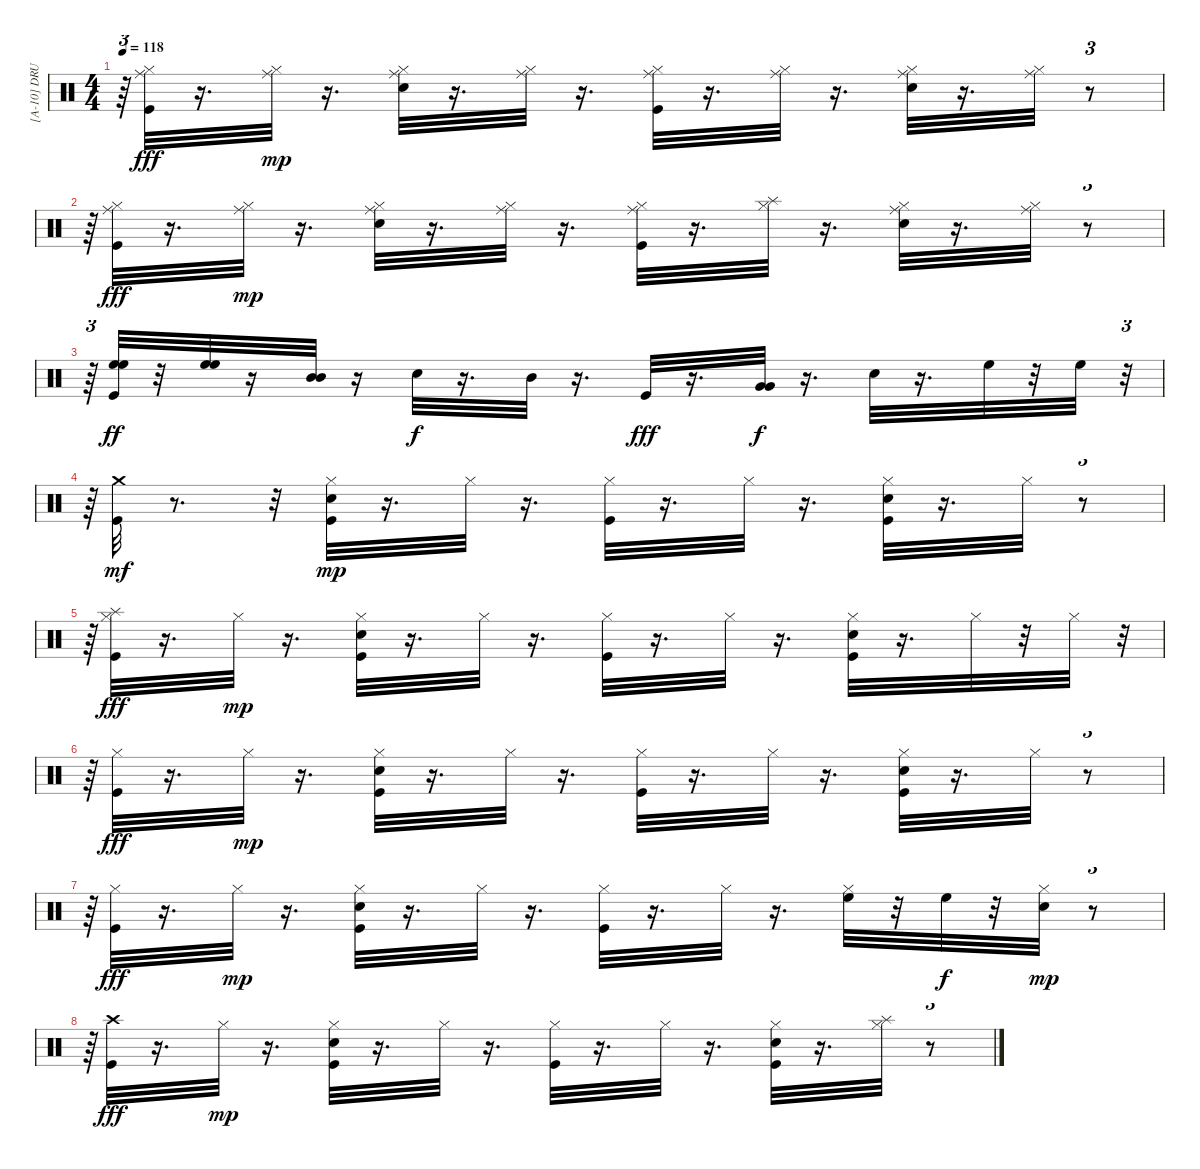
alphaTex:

\track ("[A-10] DRUM" "[A-10] DRU") {instrument percussion}
\staff {score}
\articulation defaults
\ts (4 4)
\tempo 118
\clef neutral
\ks c
r.64{tu (3 2) dy mp} ("Ride (middle)" "Hi-Hat (closed)" "Kick (hit)").32{dy fff} r.16{d} ("Ride (middle)" "Hi-Hat (closed)").32{dy mp} r.16{d} ("Ride (middle)" "Snare (hit) 2" "Hi-Hat (closed)").32 r.16{d} ("Ride (middle)" "Hi-Hat (closed)").32 r.16{d} ("Kick (hit)" "Ride (middle)" "Hi-Hat (closed)").32 r.16{d} ("Ride (middle)" "Hi-Hat (closed)").32 r.16{d} ("Snare (hit) 2" "Ride (middle)" "Hi-Hat (closed)").32 r.16{d} ("Ride (middle)" "Hi-Hat (closed)").32 r.8{tu (3 2)} |
r.64{tu (3 2)} ("Ride (middle)" "Hi-Hat (closed)" "Kick (hit)").32{dy fff} r.16{d} ("Ride (middle)" "Hi-Hat (closed)").32{dy mp} r.16{d} ("Snare (hit) 2" "Ride (middle)" "Hi-Hat (closed)").32 r.16{d} ("Ride (middle)" "Hi-Hat (closed)").32 r.16{d} ("Kick (hit)" "Ride (middle)" "Hi-Hat (closed)").32 r.16{d} ("Splash (hit)" "Hi-Hat (closed)").32 r.16{d} ("Snare (hit) 2" "Ride (middle)" "Hi-Hat (closed)").32 r.16{d} ("Ride (middle)" "Hi-Hat (closed)").32 r.8{tu (3 2)} |
r.64{tu (3 2)} ("High Floor Tom (hit)" "Kick (hit)" "High Floor Tom (hit)").32{dy ff} r.32 ("High Floor Tom (hit)" "High Floor Tom (hit)").32 r.16 ("Mid Tom (hit)" "Mid Tom (hit)").32 r.16 "Snare (hit) 2".32{dy f} r.16{d} "Mid Tom (hit)".32 r.16{d} "Kick (hit)".32{dy fff} r.16{d} ("Very Low Tom (hit)" "Very Low Tom (hit)").32{dy f} r.16{d} "Snare (hit) 2".32 r.16{d} "High Floor Tom (hit)".32 r.32 "High Floor Tom (hit)".32 r.32{tu (3 2)} |
r.64{tu (3 2)} ("Kick (hit)" "Crash medium (hit)").32{dy mf} r.8{d} r.32 ("Kick (hit)" "Hi-Hat (closed)" "Snare (hit) 2").32{dy mp} r.16{d} "Hi-Hat (closed)".32 r.16{d} ("Kick (hit)" "Hi-Hat (closed)").32 r.16{d} "Hi-Hat (closed)".32 r.16{d} ("Kick (hit)" "Hi-Hat (closed)" "Snare (hit) 2").32 r.16{d} "Hi-Hat (closed)".32 r.8{tu (3 2)} |
r.64{tu (3 2)} ("Hi-Hat (closed)" "Splash (hit)" "Kick (hit)").32{dy fff} r.16{d} "Hi-Hat (closed)".32{dy mp} r.16{d} ("Kick (hit)" "Hi-Hat (closed)" "Snare (hit) 2").32 r.16{d} "Hi-Hat (closed)".32 r.16{d} ("Kick (hit)" "Hi-Hat (closed)").32 r.16{d} "Hi-Hat (closed)".32 r.16{d} ("Kick (hit)" "Hi-Hat (closed)" "Snare (hit) 2").32 r.16{d} "Hi-Hat (closed)".32 r.32 "Hi-Hat (closed)".32 r.32{tu (3 2)} |
r.64{tu (3 2)} ("Hi-Hat (closed)" "Kick (hit)").32{dy fff} r.16{d} "Hi-Hat (closed)".32{dy mp} r.16{d} ("Kick (hit)" "Hi-Hat (closed)" "Snare (hit) 2").32 r.16{d} "Hi-Hat (closed)".32 r.16{d} ("Kick (hit)" "Hi-Hat (closed)").32 r.16{d} "Hi-Hat (closed)".32 r.16{d} ("Kick (hit)" "Hi-Hat (closed)" "Snare (hit) 2").32 r.16{d} "Hi-Hat (closed)".32 r.8{tu (3 2)} |
r.64{tu (3 2)} ("Hi-Hat (closed)" "Kick (hit)").32{dy fff} r.16{d} "Hi-Hat (closed)".32{dy mp} r.16{d} ("Kick (hit)" "Hi-Hat (closed)" "Snare (hit) 2").32 r.16{d} "Hi-Hat (closed)".32 r.16{d} ("Kick (hit)" "Hi-Hat (closed)").32 r.16{d} "Hi-Hat (closed)".32 r.16{d} ("High Floor Tom (hit)" "Hi-Hat (closed)").32 r.32 "High Floor Tom (hit)".32{dy f} r.32 ("Snare (hit) 2" "Hi-Hat (closed)").32{dy mp} r.8{tu (3 2)} |
r.64{tu (3 2)} ("Kick (hit)" "Crash high (hit)").32{dy fff} r.16{d} "Hi-Hat (closed)".32{dy mp} r.16{d} ("Kick (hit)" "Hi-Hat (closed)" "Snare (hit) 2").32 r.16{d} "Hi-Hat (closed)".32 r.16{d} ("Kick (hit)" "Hi-Hat (closed)").32 r.16{d} "Hi-Hat (closed)".32 r.16{d} ("Kick (hit)" "Hi-Hat (closed)" "Snare (hit) 2").32 r.16{d} ("Splash (hit)" "Hi-Hat (closed)").32 r.8{tu (3 2)}
